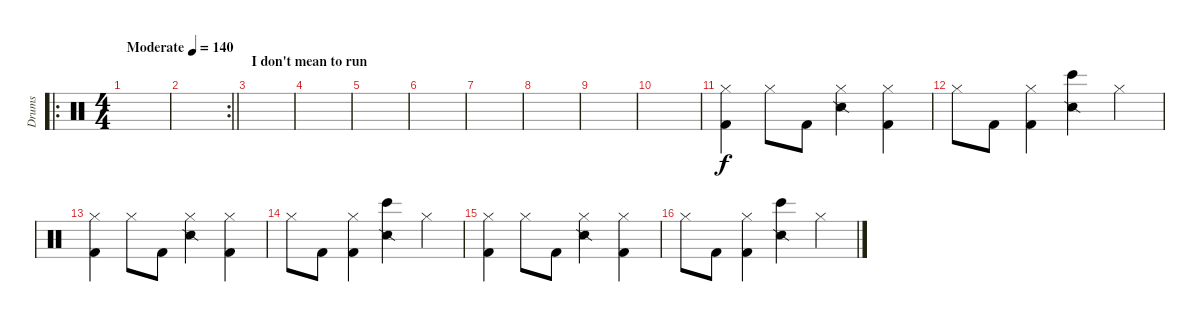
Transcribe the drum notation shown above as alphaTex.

\track ("Drums" "Drums") {instrument percussion}
\staff {score}
\articulation defaults
\ro
\ts (4 4)
\tempo (140 "Moderate")
\clef neutral
\ks c
|
\rc 2
\barLineRight lightlight
|
\section ("" "I don't mean to run")
|
|
|
|
|
|
|
|
("Kick (hit) 2" "Hi-Hat (closed)").4 "Hi-Hat (closed)".8 "Kick (hit) 2".8 ("Hi-Hat (closed)" "Snare (side stick) 2").4 ("Kick (hit) 2" "Hi-Hat (closed)").4 |
"Hi-Hat (closed)".8 "Kick (hit) 2".8 ("Kick (hit) 2" "Hi-Hat (closed)").4 ("Bongo High (hit)" "Snare (side stick) 2").4 "Hi-Hat (closed)".4 |
("Kick (hit) 2" "Hi-Hat (closed)").4 "Hi-Hat (closed)".8 "Kick (hit) 2".8 ("Hi-Hat (closed)" "Snare (side stick) 2").4 ("Kick (hit) 2" "Hi-Hat (closed)").4 |
"Hi-Hat (closed)".8 "Kick (hit) 2".8 ("Kick (hit) 2" "Hi-Hat (closed)").4 ("Bongo High (hit)" "Snare (side stick) 2").4 "Hi-Hat (closed)".4 |
("Kick (hit) 2" "Hi-Hat (closed)").4 "Hi-Hat (closed)".8 "Kick (hit) 2".8 ("Hi-Hat (closed)" "Snare (side stick) 2").4 ("Kick (hit) 2" "Hi-Hat (closed)").4 |
"Hi-Hat (closed)".8 "Kick (hit) 2".8 ("Kick (hit) 2" "Hi-Hat (closed)").4 ("Bongo High (hit)" "Snare (side stick) 2").4 "Hi-Hat (closed)".4
